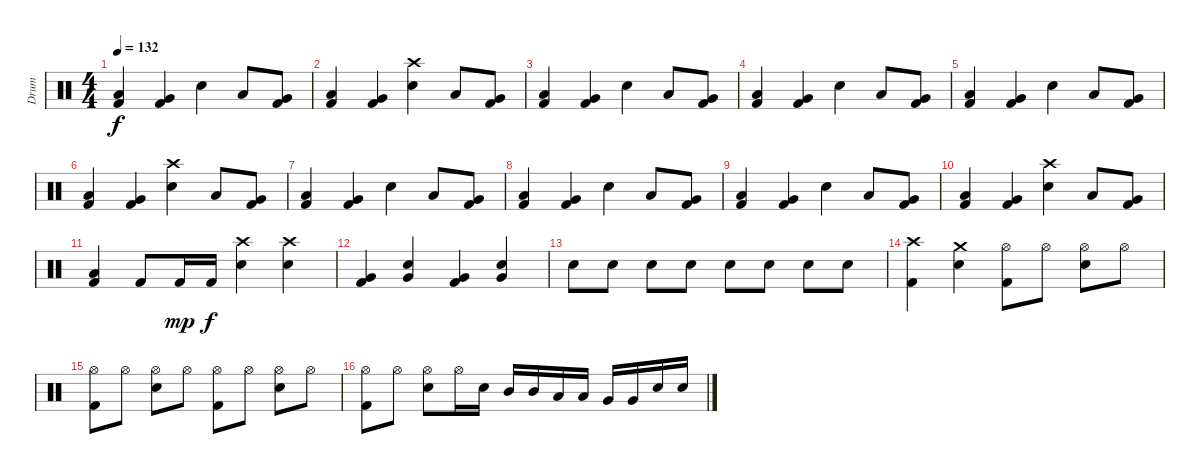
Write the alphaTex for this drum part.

\track ("Drum" "Drum") {instrument percussion}
\staff {score}
\articulation defaults
\ts (4 4)
\tempo 132
\clef neutral
\ks c
("Low Floor Tom (hit)" "Kick (hit) 2").4{dy f} ("Very Low Tom (hit)" "Kick (hit) 2").4 "Snare (hit) 2".4 "Low Tom (hit)".8 ("Very Low Tom (hit)" "Kick (hit) 2").8 |
("Low Floor Tom (hit)" "Kick (hit) 2").4 ("Very Low Tom (hit)" "Kick (hit) 2").4 ("Crash high (hit)" "Snare (hit) 2").4 "Low Tom (hit)".8 ("Very Low Tom (hit)" "Kick (hit) 2").8 |
("Low Floor Tom (hit)" "Kick (hit) 2").4 ("Very Low Tom (hit)" "Kick (hit) 2").4 "Snare (hit) 2".4 "Low Tom (hit)".8 ("Very Low Tom (hit)" "Kick (hit) 2").8 |
("Low Floor Tom (hit)" "Kick (hit) 2").4 ("Very Low Tom (hit)" "Kick (hit) 2").4 "Snare (hit) 2".4 "Low Tom (hit)".8 ("Very Low Tom (hit)" "Kick (hit) 2").8 |
("Low Floor Tom (hit)" "Kick (hit) 2").4 ("Very Low Tom (hit)" "Kick (hit) 2").4 "Snare (hit) 2".4 "Low Tom (hit)".8 ("Very Low Tom (hit)" "Kick (hit) 2").8 |
("Low Floor Tom (hit)" "Kick (hit) 2").4 ("Very Low Tom (hit)" "Kick (hit) 2").4 ("Crash high (hit)" "Snare (hit) 2").4 "Low Tom (hit)".8 ("Very Low Tom (hit)" "Kick (hit) 2").8 |
("Low Floor Tom (hit)" "Kick (hit) 2").4 ("Very Low Tom (hit)" "Kick (hit) 2").4 "Snare (hit) 2".4 "Low Tom (hit)".8 ("Very Low Tom (hit)" "Kick (hit) 2").8 |
("Low Floor Tom (hit)" "Kick (hit) 2").4 ("Very Low Tom (hit)" "Kick (hit) 2").4 "Snare (hit) 2".4 "Low Tom (hit)".8 ("Very Low Tom (hit)" "Kick (hit) 2").8 |
("Low Floor Tom (hit)" "Kick (hit) 2").4 ("Very Low Tom (hit)" "Kick (hit) 2").4 "Snare (hit) 2".4 "Low Tom (hit)".8 ("Very Low Tom (hit)" "Kick (hit) 2").8 |
("Low Floor Tom (hit)" "Kick (hit) 2").4 ("Very Low Tom (hit)" "Kick (hit) 2").4 ("Crash high (hit)" "Snare (hit) 2").4 "Low Tom (hit)".8 ("Very Low Tom (hit)" "Kick (hit) 2").8 |
("Low Floor Tom (hit)" "Kick (hit) 2").4 "Kick (hit) 2".8 "Kick (hit) 2".16{dy mp} "Kick (hit) 2".16{dy f} ("Crash high (hit)" "Snare (hit) 2").4 ("Crash high (hit)" "Snare (hit) 2").4 |
("Very Low Tom (hit)" "Kick (hit) 2").4 ("Very Low Tom (hit)" "Snare (hit) 2").4 ("Very Low Tom (hit)" "Kick (hit) 2").4 ("Very Low Tom (hit)" "Snare (hit) 2").4 |
"Snare (hit) 2".8 "Snare (hit) 2".8 "Snare (hit) 2".8 "Snare (hit) 2".8 "Snare (hit) 2".8 "Snare (hit) 2".8 "Snare (hit) 2".8 "Snare (hit) 2".8 |
("Crash high (hit)" "Kick (hit) 2").4 ("Crash medium (hit)" "Snare (hit) 2").4 ("Hi-Hat (open)" "Kick (hit) 2").8 "Hi-Hat (open)".8 ("Hi-Hat (open)" "Snare (hit) 2").8 "Hi-Hat (open)".8 |
("Hi-Hat (open)" "Kick (hit) 2").8 "Hi-Hat (open)".8 ("Hi-Hat (open)" "Snare (hit) 2").8 "Hi-Hat (open)".8 ("Hi-Hat (open)" "Kick (hit) 2").8 "Hi-Hat (open)".8 ("Hi-Hat (open)" "Snare (hit) 2").8 "Hi-Hat (open)".8 |
("Hi-Hat (open)" "Kick (hit) 2").8 "Hi-Hat (open)".8 ("Hi-Hat (open)" "Snare (hit) 2").8 "Hi-Hat (open)".16 "Snare (hit) 2".16 "Mid Tom (hit)".16 "Mid Tom (hit)".16 "Low Tom (hit)".16 "Low Tom (hit)".16 "Very Low Tom (hit)".16 "Very Low Tom (hit)".16 "Snare (hit) 2".16 "Snare (hit) 2".16
